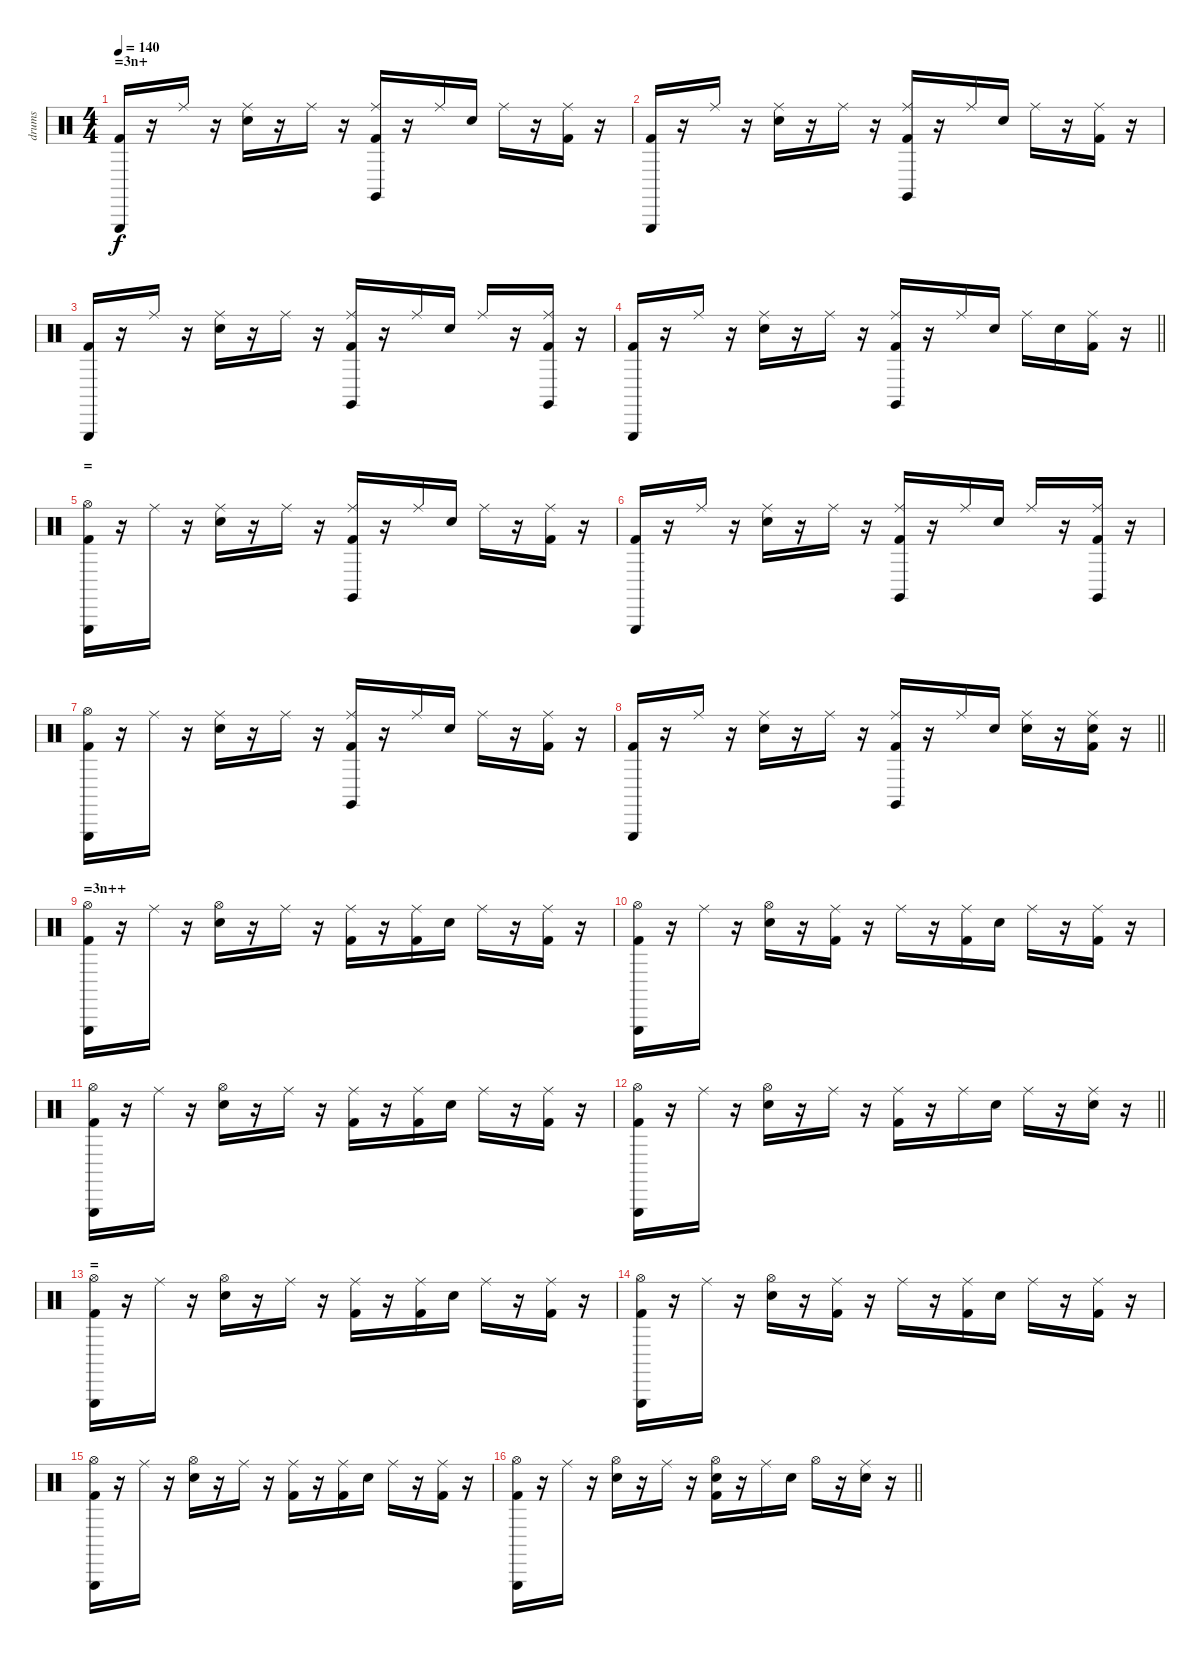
\track ("drums" "drums") {instrument percussion}
\staff {score}
\articulation defaults
\ts (4 4)
\section ("" "=3n+")
\tempo 140
\clef neutral
\ks c
("Kick (hit) 2" "Triangle (hit)").16{dy f} r.16 "Ride (middle)".16 r.16 ("Electric Snare (hit)" "Ride (middle)").16 r.16 "Ride (middle)".16 r.16 ("Kick (hit) 2" "Ride (middle)" "Claves (hit)").16 r.16 "Ride (middle)".16 "Electric Snare (hit)".16 "Ride (middle)".16 r.16 ("Kick (hit) 2" "Ride (middle)").16 r.16 |
("Kick (hit) 2" "Triangle (hit)").16 r.16 "Ride (middle)".16 r.16 ("Electric Snare (hit)" "Ride (middle)").16 r.16 "Ride (middle)".16 r.16 ("Kick (hit) 2" "Ride (middle)" "Claves (hit)").16 r.16 "Ride (middle)".16 "Electric Snare (hit)".16 "Ride (middle)".16 r.16 ("Kick (hit) 2" "Ride (middle)").16 r.16 |
("Kick (hit) 2" "Triangle (hit)").16 r.16 "Ride (middle)".16 r.16 ("Electric Snare (hit)" "Ride (middle)").16 r.16 "Ride (middle)".16 r.16 ("Kick (hit) 2" "Ride (middle)" "Claves (hit)").16 r.16 "Ride (middle)".16 "Electric Snare (hit)".16 "Ride (middle)".16 r.16 ("Kick (hit) 2" "Ride (middle)" "Claves (hit)").16 r.16 |
\barLineRight lightlight
("Kick (hit) 2" "Triangle (hit)").16 r.16 "Ride (middle)".16 r.16 ("Electric Snare (hit)" "Ride (middle)").16 r.16 "Ride (middle)".16 r.16 ("Kick (hit) 2" "Ride (middle)" "Claves (hit)").16 r.16 "Ride (middle)".16 "Electric Snare (hit)".16 "Ride (middle)".16 "Electric Snare (hit)".16 ("Kick (hit) 2" "Ride (middle)").16 r.16 |
\section ("" "=")
("Kick (hit) 2" "Hi-Hat (open)" "Triangle (hit)").16 r.16 "Ride (middle)".16 r.16 ("Electric Snare (hit)" "Ride (middle)").16 r.16 "Ride (middle)".16 r.16 ("Kick (hit) 2" "Ride (middle)" "Claves (hit)").16 r.16 "Ride (middle)".16 "Electric Snare (hit)".16 "Ride (middle)".16 r.16 ("Kick (hit) 2" "Ride (middle)").16 r.16 |
("Kick (hit) 2" "Triangle (hit)").16 r.16 "Ride (middle)".16 r.16 ("Electric Snare (hit)" "Ride (middle)").16 r.16 "Ride (middle)".16 r.16 ("Kick (hit) 2" "Ride (middle)" "Claves (hit)").16 r.16 "Ride (middle)".16 "Electric Snare (hit)".16 "Ride (middle)".16 r.16 ("Kick (hit) 2" "Ride (middle)" "Claves (hit)").16 r.16 |
("Kick (hit) 2" "Hi-Hat (open)" "Triangle (hit)").16 r.16 "Ride (middle)".16 r.16 ("Electric Snare (hit)" "Ride (middle)").16 r.16 "Ride (middle)".16 r.16 ("Kick (hit) 2" "Ride (middle)" "Claves (hit)").16 r.16 "Ride (middle)".16 "Electric Snare (hit)".16 "Ride (middle)".16 r.16 ("Kick (hit) 2" "Ride (middle)").16 r.16 |
\barLineRight lightlight
("Kick (hit) 2" "Triangle (hit)").16 r.16 "Ride (middle)".16 r.16 ("Electric Snare (hit)" "Ride (middle)").16 r.16 "Ride (middle)".16 r.16 ("Kick (hit) 2" "Ride (middle)" "Claves (hit)").16 r.16 "Ride (middle)".16 "Electric Snare (hit)".16 ("Electric Snare (hit)" "Ride (middle)").16 r.16 ("Kick (hit) 2" "Electric Snare (hit)" "Ride (middle)").16 r.16 |
\section ("" "=3n++")
("Kick (hit) 2" "Hi-Hat (open)" "Triangle (hit)").16 r.16 "Ride (middle)".16 r.16 ("Electric Snare (hit)" "Hi-Hat (open)").16 r.16 "Ride (middle)".16 r.16 ("Kick (hit) 2" "Ride (middle)").16 r.16 ("Kick (hit) 2" "Ride (middle)").16 "Electric Snare (hit)".16 "Ride (middle)".16 r.16 ("Kick (hit) 2" "Ride (middle)").16 r.16 |
("Kick (hit) 2" "Hi-Hat (open)" "Triangle (hit)").16 r.16 "Ride (middle)".16 r.16 ("Electric Snare (hit)" "Hi-Hat (open)").16 r.16 ("Kick (hit) 2" "Ride (middle)").16 r.16 "Ride (middle)".16 r.16 ("Kick (hit) 2" "Ride (middle)").16 "Electric Snare (hit)".16 "Ride (middle)".16 r.16 ("Kick (hit) 2" "Ride (middle)").16 r.16 |
("Kick (hit) 2" "Hi-Hat (open)" "Triangle (hit)").16 r.16 "Ride (middle)".16 r.16 ("Electric Snare (hit)" "Hi-Hat (open)").16 r.16 "Ride (middle)".16 r.16 ("Kick (hit) 2" "Ride (middle)").16 r.16 ("Kick (hit) 2" "Ride (middle)").16 "Electric Snare (hit)".16 "Ride (middle)".16 r.16 ("Kick (hit) 2" "Ride (middle)").16 r.16 |
\barLineRight lightlight
("Kick (hit) 2" "Hi-Hat (open)" "Triangle (hit)").16 r.16 "Ride (middle)".16 r.16 ("Electric Snare (hit)" "Hi-Hat (open)").16 r.16 "Ride (middle)".16 r.16 ("Kick (hit) 2" "Ride (middle)").16 r.16 "Ride (middle)".16 "Electric Snare (hit)".16 "Ride (middle)".16 r.16 ("Electric Snare (hit)" "Ride (middle)").16 r.16 |
\section ("" "=")
("Kick (hit) 2" "Hi-Hat (open)" "Triangle (hit)").16 r.16 "Ride (middle)".16 r.16 ("Electric Snare (hit)" "Hi-Hat (open)").16 r.16 "Ride (middle)".16 r.16 ("Kick (hit) 2" "Ride (middle)").16 r.16 ("Kick (hit) 2" "Ride (middle)").16 "Electric Snare (hit)".16 "Ride (middle)".16 r.16 ("Kick (hit) 2" "Ride (middle)").16 r.16 |
("Kick (hit) 2" "Hi-Hat (open)" "Triangle (hit)").16 r.16 "Ride (middle)".16 r.16 ("Electric Snare (hit)" "Hi-Hat (open)").16 r.16 ("Kick (hit) 2" "Ride (middle)").16 r.16 "Ride (middle)".16 r.16 ("Kick (hit) 2" "Ride (middle)").16 "Electric Snare (hit)".16 "Ride (middle)".16 r.16 ("Kick (hit) 2" "Ride (middle)").16 r.16 |
("Kick (hit) 2" "Hi-Hat (open)" "Triangle (hit)").16 r.16 "Ride (middle)".16 r.16 ("Electric Snare (hit)" "Hi-Hat (open)").16 r.16 "Ride (middle)".16 r.16 ("Kick (hit) 2" "Ride (middle)").16 r.16 ("Kick (hit) 2" "Ride (middle)").16 "Electric Snare (hit)".16 "Ride (middle)".16 r.16 ("Kick (hit) 2" "Ride (middle)").16 r.16 |
\barLineRight lightlight
("Kick (hit) 2" "Hi-Hat (open)" "Triangle (hit)").16 r.16 "Ride (middle)".16 r.16 ("Electric Snare (hit)" "Hi-Hat (open)").16 r.16 "Ride (middle)".16 r.16 ("Kick (hit) 2" "Electric Snare (hit)" "Hi-Hat (open)").16 r.16 "Ride (middle)".16 "Electric Snare (hit)".16 "Hi-Hat (open)".16 r.16 ("Electric Snare (hit)" "Ride (middle)").16 r.16
